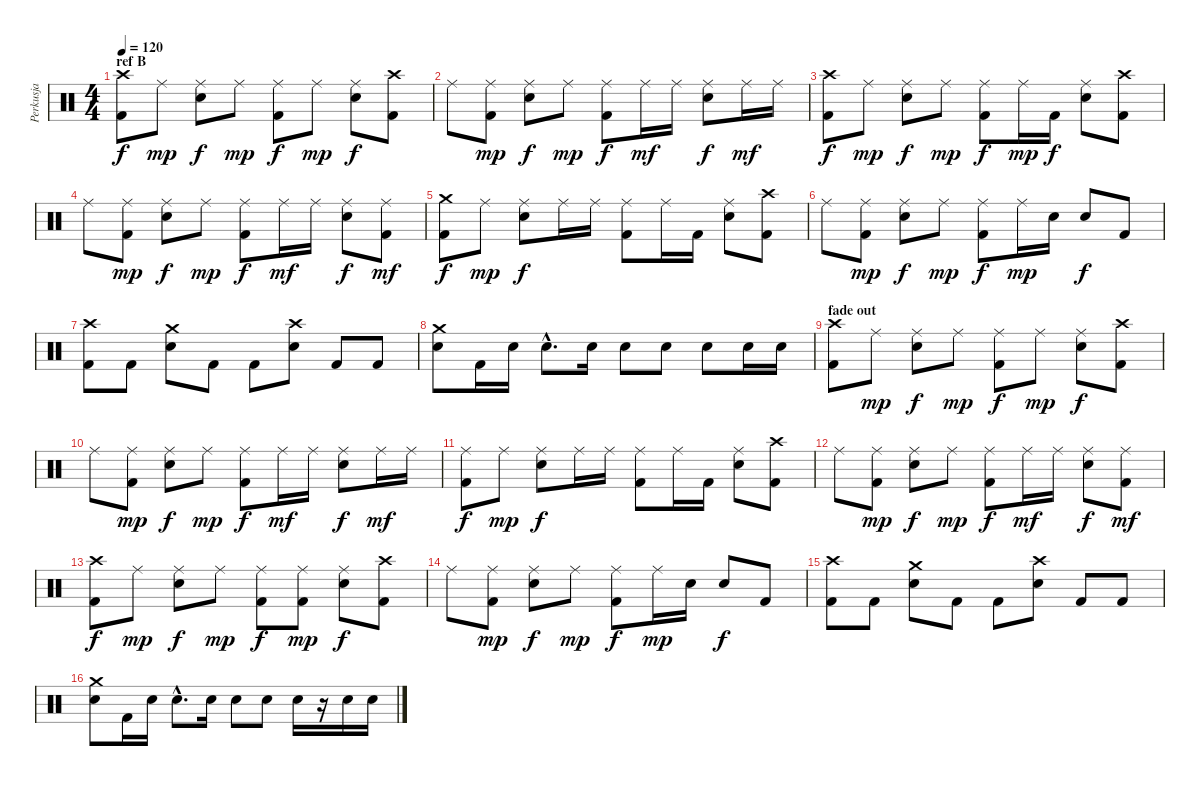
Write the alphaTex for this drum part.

\track ("Perkusja" "Perkusja") {instrument percussion}
\staff {score}
\articulation defaults
\ts (4 4)
\section ("" "ref B")
\tempo 120
\clef neutral
\ks c
("Crash high (hit)" "Kick (hit) 2").8{dy f} "Ride (middle)".8{dy mp} ("Ride (middle)" "Snare (hit) 2").8{dy f} "Ride (middle)".8{dy mp} ("Ride (middle)" "Kick (hit) 2").8{dy f} "Ride (middle)".8{dy mp} ("Ride (middle)" "Snare (hit) 2").8{dy f} ("Crash high (hit)" "Kick (hit) 2").8 |
"Ride (middle)".8 ("Ride (middle)" "Kick (hit) 2").8{dy mp} ("Ride (middle)" "Snare (hit) 2").8{dy f} "Ride (middle)".8{dy mp} ("Ride (middle)" "Kick (hit) 2").8{dy f} "Ride (middle)".16{dy mf} "Ride (middle)".16 ("Ride (middle)" "Snare (hit) 2").8{dy f} "Ride (middle)".16{dy mf} "Ride (middle)".16 |
("Crash high (hit)" "Kick (hit) 2").8{dy f} "Ride (middle)".8{dy mp} ("Ride (middle)" "Snare (hit) 2").8{dy f} "Ride (middle)".8{dy mp} ("Ride (middle)" "Kick (hit) 2").8{dy f} "Ride (middle)".16{dy mp} "Kick (hit) 2".16{dy f} ("Ride (middle)" "Snare (hit) 2").8 ("Crash high (hit)" "Kick (hit) 2").8 |
"Ride (middle)".8 ("Ride (middle)" "Kick (hit) 2").8{dy mp} ("Ride (middle)" "Snare (hit) 2").8{dy f} "Ride (middle)".8{dy mp} ("Ride (middle)" "Kick (hit) 2").8{dy f} "Ride (middle)".16{dy mf} "Ride (middle)".16 ("Ride (middle)" "Snare (hit) 2").8{dy f} ("Ride (middle)" "Kick (hit) 2").8{dy mf} |
("Crash medium (hit)" "Kick (hit) 2").8{dy f} "Ride (middle)".8{dy mp} ("Ride (middle)" "Snare (hit) 2").8{dy f} "Ride (middle)".16 "Ride (middle)".16 ("Ride (middle)" "Kick (hit) 2").8 "Ride (middle)".16 "Kick (hit) 2".16 ("Ride (middle)" "Snare (hit) 2").8 ("Crash high (hit)" "Kick (hit) 2").8 |
"Ride (middle)".8 ("Ride (middle)" "Kick (hit) 2").8{dy mp} ("Ride (middle)" "Snare (hit) 2").8{dy f} "Ride (middle)".8{dy mp} ("Ride (middle)" "Kick (hit) 2").8{dy f} "Ride (middle)".16{dy mp} "Snare (hit) 2".16 "Snare (hit) 2".8{dy f} "Kick (hit) 2".8 |
("Crash high (hit)" "Kick (hit) 2").8 "Kick (hit) 2".8 ("Crash medium (hit)" "Snare (hit) 2").8 "Kick (hit) 2".8 "Kick (hit) 2".8 ("Crash high (hit)" "Snare (hit) 2").8 "Kick (hit) 2".8 "Kick (hit) 2".8 |
("Crash medium (hit)" "Snare (hit) 2").8 "Kick (hit) 2".16 "Snare (hit) 2".16 "Snare (hit) 2"{hac}.8{d} "Snare (hit) 2".16 "Snare (hit) 2".8 "Snare (hit) 2".8 "Snare (hit) 2".8 "Snare (hit) 2".16 "Snare (hit) 2".16 |
\section ("" "fade out")
("Crash high (hit)" "Kick (hit) 2").8 "Ride (middle)".8{dy mp} ("Ride (middle)" "Snare (hit) 2").8{dy f} "Ride (middle)".8{dy mp} ("Ride (middle)" "Kick (hit) 2").8{dy f} "Ride (middle)".8{dy mp} ("Ride (middle)" "Snare (hit) 2").8{dy f} ("Crash high (hit)" "Kick (hit) 2").8 |
"Ride (middle)".8 ("Ride (middle)" "Kick (hit) 2").8{dy mp} ("Ride (middle)" "Snare (hit) 2").8{dy f} "Ride (middle)".8{dy mp} ("Ride (middle)" "Kick (hit) 2").8{dy f} "Ride (middle)".16{dy mf} "Ride (middle)".16 ("Ride (middle)" "Snare (hit) 2").8{dy f} "Ride (middle)".16{dy mf} "Ride (middle)".16 |
("Ride (middle)" "Kick (hit) 2").8{dy f} "Ride (middle)".8{dy mp} ("Ride (middle)" "Snare (hit) 2").8{dy f} "Ride (middle)".16 "Ride (middle)".16 ("Ride (middle)" "Kick (hit) 2").8 "Ride (middle)".16 "Kick (hit) 2".16 ("Ride (middle)" "Snare (hit) 2").8 ("Crash high (hit)" "Kick (hit) 2").8 |
"Ride (middle)".8 ("Ride (middle)" "Kick (hit) 2").8{dy mp} ("Ride (middle)" "Snare (hit) 2").8{dy f} "Ride (middle)".8{dy mp} ("Ride (middle)" "Kick (hit) 2").8{dy f} "Ride (middle)".16{dy mf} "Ride (middle)".16 ("Ride (middle)" "Snare (hit) 2").8{dy f} ("Ride (middle)" "Kick (hit) 2").8{dy mf} |
("Crash high (hit)" "Kick (hit) 2").8{dy f} "Ride (middle)".8{dy mp} ("Ride (middle)" "Snare (hit) 2").8{dy f} "Ride (middle)".8{dy mp} ("Ride (middle)" "Kick (hit) 2").8{dy f} ("Ride (middle)" "Kick (hit) 2").8{dy mp} ("Ride (middle)" "Snare (hit) 2").8{dy f} ("Crash high (hit)" "Kick (hit) 2").8 |
"Ride (middle)".8 ("Ride (middle)" "Kick (hit) 2").8{dy mp} ("Ride (middle)" "Snare (hit) 2").8{dy f} "Ride (middle)".8{dy mp} ("Ride (middle)" "Kick (hit) 2").8{dy f} "Ride (middle)".16{dy mp} "Snare (hit) 2".16 "Snare (hit) 2".8{dy f} "Kick (hit) 2".8 |
("Crash high (hit)" "Kick (hit) 2").8 "Kick (hit) 2".8 ("Crash medium (hit)" "Snare (hit) 2").8 "Kick (hit) 2".8 "Kick (hit) 2".8 ("Crash high (hit)" "Snare (hit) 2").8 "Kick (hit) 2".8 "Kick (hit) 2".8 |
("Crash medium (hit)" "Snare (hit) 2").8 "Kick (hit) 2".16 "Snare (hit) 2".16 "Snare (hit) 2"{hac}.8{d} "Snare (hit) 2".16 "Snare (hit) 2".8 "Snare (hit) 2".8 "Snare (hit) 2".16 r.16 "Snare (hit) 2".16 "Snare (hit) 2".16
